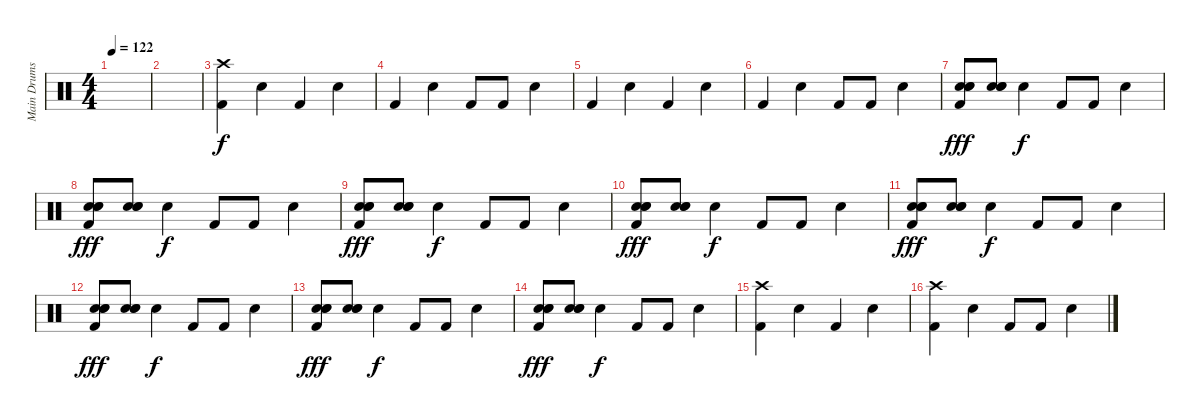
\track ("Main Drums" "Main Drums") {instrument percussion}
\staff {score}
\articulation defaults
\ts (4 4)
\tempo 122
\clef neutral
\ks c
|
|
("Crash high (hit)" "Kick (hit) 2").4 "Snare (hit) 2".4 "Kick (hit) 2".4 "Snare (hit) 2".4 |
"Kick (hit) 2".4 "Snare (hit) 2".4 "Kick (hit) 2".8 "Kick (hit) 2".8 "Snare (hit) 2".4 |
"Kick (hit) 2".4 "Snare (hit) 2".4 "Kick (hit) 2".4 "Snare (hit) 2".4 |
"Kick (hit) 2".4 "Snare (hit) 2".4 "Kick (hit) 2".8 "Kick (hit) 2".8 "Snare (hit) 2".4 |
("Hand Clap (hit)" "Hand Clap (hit)" "Electric Snare (hit)" "Kick (hit) 2").8{dy fff} ("Hand Clap (hit)" "Hand Clap (hit)" "Electric Snare (hit)").8 "Snare (hit) 2".4{dy f} "Kick (hit) 2".8 "Kick (hit) 2".8 "Snare (hit) 2".4 |
("Hand Clap (hit)" "Hand Clap (hit)" "Electric Snare (hit)" "Kick (hit) 2").8{dy fff} ("Hand Clap (hit)" "Hand Clap (hit)" "Electric Snare (hit)").8 "Snare (hit) 2".4{dy f} "Kick (hit) 2".8 "Kick (hit) 2".8 "Snare (hit) 2".4 |
("Hand Clap (hit)" "Hand Clap (hit)" "Electric Snare (hit)" "Kick (hit) 2").8{dy fff} ("Hand Clap (hit)" "Hand Clap (hit)" "Electric Snare (hit)").8 "Snare (hit) 2".4{dy f} "Kick (hit) 2".8 "Kick (hit) 2".8 "Snare (hit) 2".4 |
("Hand Clap (hit)" "Hand Clap (hit)" "Electric Snare (hit)" "Kick (hit) 2").8{dy fff} ("Hand Clap (hit)" "Hand Clap (hit)" "Electric Snare (hit)").8 "Snare (hit) 2".4{dy f} "Kick (hit) 2".8 "Kick (hit) 2".8 "Snare (hit) 2".4 |
("Hand Clap (hit)" "Hand Clap (hit)" "Electric Snare (hit)" "Kick (hit) 2").8{dy fff} ("Hand Clap (hit)" "Hand Clap (hit)" "Electric Snare (hit)").8 "Snare (hit) 2".4{dy f} "Kick (hit) 2".8 "Kick (hit) 2".8 "Snare (hit) 2".4 |
("Hand Clap (hit)" "Hand Clap (hit)" "Electric Snare (hit)" "Kick (hit) 2").8{dy fff} ("Hand Clap (hit)" "Hand Clap (hit)" "Electric Snare (hit)").8 "Snare (hit) 2".4{dy f} "Kick (hit) 2".8 "Kick (hit) 2".8 "Snare (hit) 2".4 |
("Hand Clap (hit)" "Hand Clap (hit)" "Electric Snare (hit)" "Kick (hit) 2").8{dy fff} ("Hand Clap (hit)" "Hand Clap (hit)" "Electric Snare (hit)").8 "Snare (hit) 2".4{dy f} "Kick (hit) 2".8 "Kick (hit) 2".8 "Snare (hit) 2".4 |
("Hand Clap (hit)" "Hand Clap (hit)" "Electric Snare (hit)" "Kick (hit) 2").8{dy fff} ("Hand Clap (hit)" "Hand Clap (hit)" "Electric Snare (hit)").8 "Snare (hit) 2".4{dy f} "Kick (hit) 2".8 "Kick (hit) 2".8 "Snare (hit) 2".4 |
("Kick (hit) 2" "Crash high (hit)").4 "Snare (hit) 2".4 "Kick (hit) 2".4 "Snare (hit) 2".4 |
("Kick (hit) 2" "Crash high (hit)").4 "Snare (hit) 2".4 "Kick (hit) 2".8 "Kick (hit) 2".8 "Snare (hit) 2".4
